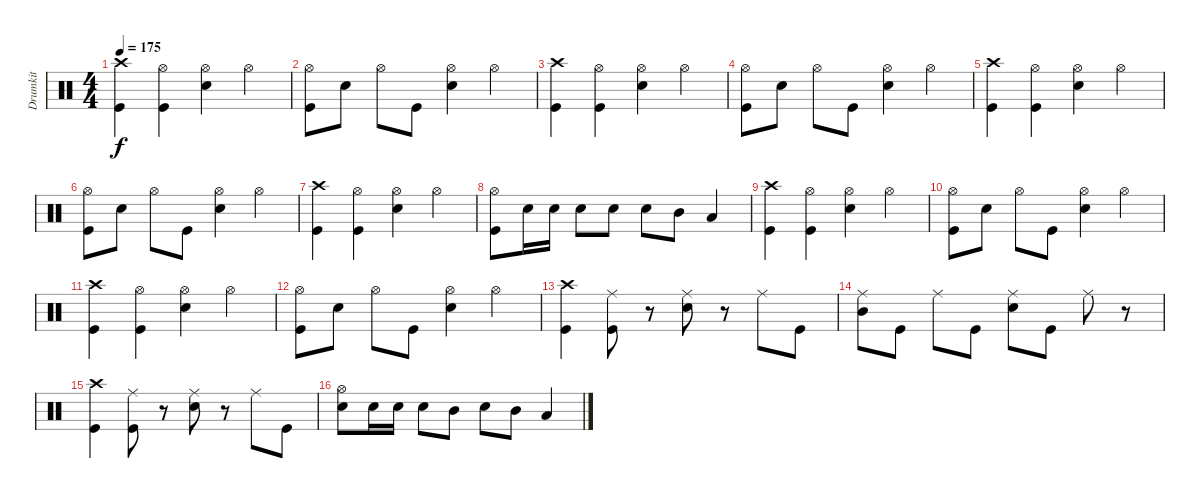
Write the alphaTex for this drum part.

\track ("Drumkit" "Drumkit") {instrument percussion}
\staff {score}
\articulation defaults
\ts (4 4)
\tempo 175
\clef neutral
\ks c
("Crash high (hit)" "Kick (hit)").4{dy f} ("Hi-Hat (open)" "Kick (hit)").4 ("Hi-Hat (open)" "Snare (hit) 2").4 "Hi-Hat (open)".4 |
("Hi-Hat (open)" "Kick (hit)").8 "Snare (hit) 2".8 "Hi-Hat (open)".8 "Kick (hit)".8 ("Hi-Hat (open)" "Snare (hit) 2").4 "Hi-Hat (open)".4 |
("Crash high (hit)" "Kick (hit)").4 ("Hi-Hat (open)" "Kick (hit)").4 ("Hi-Hat (open)" "Snare (hit) 2").4 "Hi-Hat (open)".4 |
("Hi-Hat (open)" "Kick (hit)").8 "Snare (hit) 2".8 "Hi-Hat (open)".8 "Kick (hit)".8 ("Hi-Hat (open)" "Snare (hit) 2").4 "Hi-Hat (open)".4 |
("Crash high (hit)" "Kick (hit)").4 ("Hi-Hat (open)" "Kick (hit)").4 ("Hi-Hat (open)" "Snare (hit) 2").4 "Hi-Hat (open)".4 |
("Hi-Hat (open)" "Kick (hit)").8 "Snare (hit) 2".8 "Hi-Hat (open)".8 "Kick (hit)".8 ("Hi-Hat (open)" "Snare (hit) 2").4 "Hi-Hat (open)".4 |
("Crash high (hit)" "Kick (hit)").4 ("Hi-Hat (open)" "Kick (hit)").4 ("Hi-Hat (open)" "Snare (hit) 2").4 "Hi-Hat (open)".4 |
("Hi-Hat (open)" "Kick (hit)").8 "Snare (hit) 2".16 "Snare (hit) 2".16 "Snare (hit) 2".8 "Snare (hit) 2".8 "Snare (hit) 2".8 "Mid Tom (hit)".8 "Low Tom (hit)".4 |
("Crash high (hit)" "Kick (hit)").4 ("Hi-Hat (open)" "Kick (hit)").4 ("Hi-Hat (open)" "Snare (hit) 2").4 "Hi-Hat (open)".4 |
("Hi-Hat (open)" "Kick (hit)").8 "Snare (hit) 2".8 "Hi-Hat (open)".8 "Kick (hit)".8 ("Hi-Hat (open)" "Snare (hit) 2").4 "Hi-Hat (open)".4 |
("Crash high (hit)" "Kick (hit)").4 ("Hi-Hat (open)" "Kick (hit)").4 ("Hi-Hat (open)" "Snare (hit) 2").4 "Hi-Hat (open)".4 |
("Hi-Hat (open)" "Kick (hit)").8 "Snare (hit) 2".8 "Hi-Hat (open)".8 "Kick (hit)".8 ("Hi-Hat (open)" "Snare (hit) 2").4 "Hi-Hat (open)".4 |
("Crash high (hit)" "Kick (hit)").4 ("Ride (middle)" "Kick (hit)").8 r.8 ("Ride (middle)" "Snare (hit) 2").8 r.8 "Ride (middle)".8 "Kick (hit)".8 |
("Ride (middle)" "Mid Tom (hit)").8 "Kick (hit)".8 "Ride (middle)".8 "Kick (hit)".8 ("Ride (middle)" "Snare (hit) 2").8 "Kick (hit)".8 "Ride (middle)".8 r.8 |
("Crash high (hit)" "Kick (hit)").4 ("Ride (middle)" "Kick (hit)").8 r.8 ("Ride (middle)" "Snare (hit) 2").8 r.8 "Ride (middle)".8 "Kick (hit)".8 |
("Hi-Hat (open)" "Snare (hit) 2").8 "Snare (hit) 2".16 "Snare (hit) 2".16 "Snare (hit) 2".8 "Mid Tom (hit)".8 "Snare (hit) 2".8 "Mid Tom (hit)".8 "Low Tom (hit)".4
